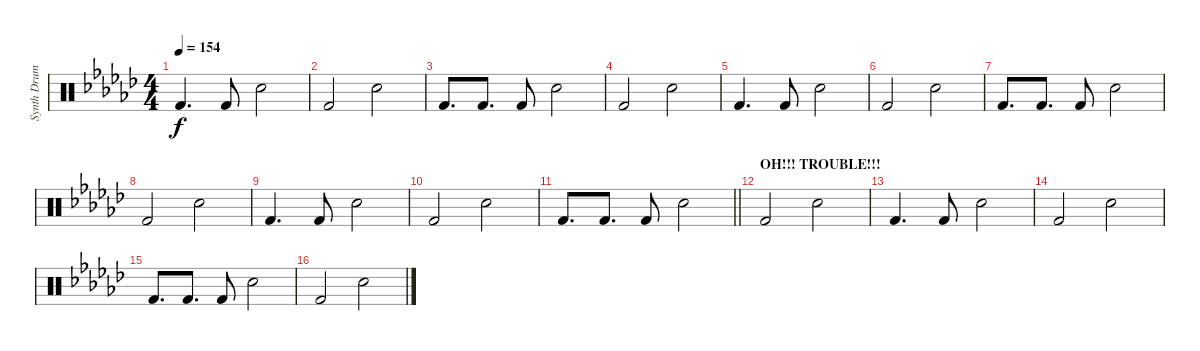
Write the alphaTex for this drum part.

\track ("Synth Drums" "Synth Drum") {instrument percussion}
\staff {score}
\articulation defaults
\ts (4 4)
\tempo 154
\clef neutral
\ks gb "Kick (hit) 2".4{d dy f} "Kick (hit) 2".8 "Electric Snare (hit)".2
|
"Kick (hit) 2".2 "Electric Snare (hit)".2 |
"Kick (hit) 2".8{d} "Kick (hit) 2".8{d} "Kick (hit) 2".8 "Electric Snare (hit)".2 |
"Kick (hit) 2".2 "Electric Snare (hit)".2 |
"Kick (hit) 2".4{d} "Kick (hit) 2".8 "Electric Snare (hit)".2 |
"Kick (hit) 2".2 "Electric Snare (hit)".2 |
"Kick (hit) 2".8{d} "Kick (hit) 2".8{d} "Kick (hit) 2".8 "Electric Snare (hit)".2 |
"Kick (hit) 2".2 "Electric Snare (hit)".2 |
"Kick (hit) 2".4{d} "Kick (hit) 2".8 "Electric Snare (hit)".2 |
"Kick (hit) 2".2 "Electric Snare (hit)".2 |
\barLineRight lightlight "Kick (hit) 2".8{d} "Kick (hit) 2".8{d} "Kick (hit) 2".8 "Electric Snare (hit)".2
|
\section ("" "OH!!! TROUBLE!!!")
"Kick (hit) 2".2 "Electric Snare (hit)".2 |
"Kick (hit) 2".4{d} "Kick (hit) 2".8 "Electric Snare (hit)".2 |
"Kick (hit) 2".2 "Electric Snare (hit)".2 |
"Kick (hit) 2".8{d} "Kick (hit) 2".8{d} "Kick (hit) 2".8 "Electric Snare (hit)".2 |
"Kick (hit) 2".2 "Electric Snare (hit)".2
